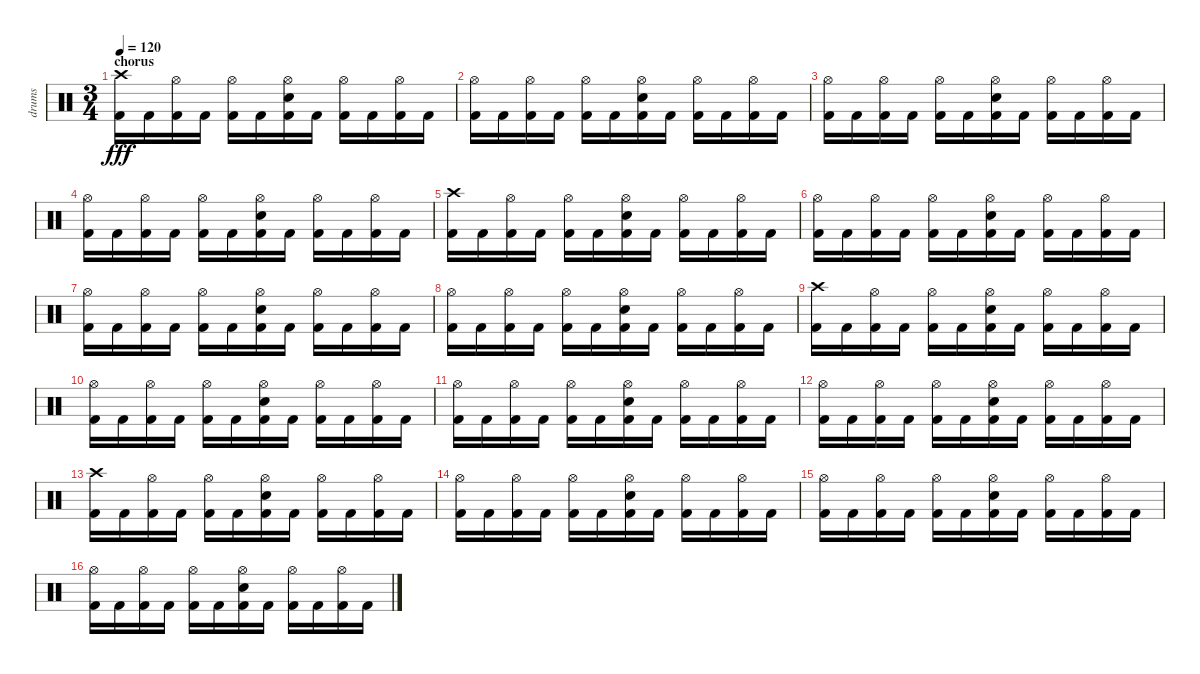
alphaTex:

\track ("drums" "drums") {instrument percussion}
\staff {score}
\articulation defaults
\ts (3 4)
\section ("" "chorus")
\tempo 120
\clef neutral
\ks c
("Crash high (hit)" "Kick (hit) 2").16{dy fff} "Kick (hit) 2".16 ("Hi-Hat (open)" "Kick (hit) 2").16 "Kick (hit) 2".16 ("Hi-Hat (open)" "Kick (hit) 2").16 "Kick (hit) 2".16 ("Hi-Hat (open)" "Snare (hit) 2" "Kick (hit) 2").16 "Kick (hit) 2".16 ("Hi-Hat (open)" "Kick (hit) 2").16 "Kick (hit) 2".16 ("Hi-Hat (open)" "Kick (hit) 2").16 "Kick (hit) 2".16 |
("Hi-Hat (open)" "Kick (hit) 2").16 "Kick (hit) 2".16 ("Hi-Hat (open)" "Kick (hit) 2").16 "Kick (hit) 2".16 ("Hi-Hat (open)" "Kick (hit) 2").16 "Kick (hit) 2".16 ("Hi-Hat (open)" "Snare (hit) 2" "Kick (hit) 2").16 "Kick (hit) 2".16 ("Hi-Hat (open)" "Kick (hit) 2").16 "Kick (hit) 2".16 ("Hi-Hat (open)" "Kick (hit) 2").16 "Kick (hit) 2".16 |
("Hi-Hat (open)" "Kick (hit) 2").16 "Kick (hit) 2".16 ("Hi-Hat (open)" "Kick (hit) 2").16 "Kick (hit) 2".16 ("Hi-Hat (open)" "Kick (hit) 2").16 "Kick (hit) 2".16 ("Hi-Hat (open)" "Snare (hit) 2" "Kick (hit) 2").16 "Kick (hit) 2".16 ("Hi-Hat (open)" "Kick (hit) 2").16 "Kick (hit) 2".16 ("Hi-Hat (open)" "Kick (hit) 2").16 "Kick (hit) 2".16 |
("Hi-Hat (open)" "Kick (hit) 2").16 "Kick (hit) 2".16 ("Hi-Hat (open)" "Kick (hit) 2").16 "Kick (hit) 2".16 ("Hi-Hat (open)" "Kick (hit) 2").16 "Kick (hit) 2".16 ("Hi-Hat (open)" "Snare (hit) 2" "Kick (hit) 2").16 "Kick (hit) 2".16 ("Hi-Hat (open)" "Kick (hit) 2").16 "Kick (hit) 2".16 ("Hi-Hat (open)" "Kick (hit) 2").16 "Kick (hit) 2".16 |
("Crash high (hit)" "Kick (hit) 2").16 "Kick (hit) 2".16 ("Hi-Hat (open)" "Kick (hit) 2").16 "Kick (hit) 2".16 ("Hi-Hat (open)" "Kick (hit) 2").16 "Kick (hit) 2".16 ("Hi-Hat (open)" "Snare (hit) 2" "Kick (hit) 2").16 "Kick (hit) 2".16 ("Hi-Hat (open)" "Kick (hit) 2").16 "Kick (hit) 2".16 ("Hi-Hat (open)" "Kick (hit) 2").16 "Kick (hit) 2".16 |
("Hi-Hat (open)" "Kick (hit) 2").16 "Kick (hit) 2".16 ("Hi-Hat (open)" "Kick (hit) 2").16 "Kick (hit) 2".16 ("Hi-Hat (open)" "Kick (hit) 2").16 "Kick (hit) 2".16 ("Hi-Hat (open)" "Snare (hit) 2" "Kick (hit) 2").16 "Kick (hit) 2".16 ("Hi-Hat (open)" "Kick (hit) 2").16 "Kick (hit) 2".16 ("Hi-Hat (open)" "Kick (hit) 2").16 "Kick (hit) 2".16 |
("Hi-Hat (open)" "Kick (hit) 2").16 "Kick (hit) 2".16 ("Hi-Hat (open)" "Kick (hit) 2").16 "Kick (hit) 2".16 ("Hi-Hat (open)" "Kick (hit) 2").16 "Kick (hit) 2".16 ("Hi-Hat (open)" "Snare (hit) 2" "Kick (hit) 2").16 "Kick (hit) 2".16 ("Hi-Hat (open)" "Kick (hit) 2").16 "Kick (hit) 2".16 ("Hi-Hat (open)" "Kick (hit) 2").16 "Kick (hit) 2".16 |
("Hi-Hat (open)" "Kick (hit) 2").16 "Kick (hit) 2".16 ("Hi-Hat (open)" "Kick (hit) 2").16 "Kick (hit) 2".16 ("Hi-Hat (open)" "Kick (hit) 2").16 "Kick (hit) 2".16 ("Hi-Hat (open)" "Snare (hit) 2" "Kick (hit) 2").16 "Kick (hit) 2".16 ("Hi-Hat (open)" "Kick (hit) 2").16 "Kick (hit) 2".16 ("Hi-Hat (open)" "Kick (hit) 2").16 "Kick (hit) 2".16 |
("Crash high (hit)" "Kick (hit) 2").16 "Kick (hit) 2".16 ("Hi-Hat (open)" "Kick (hit) 2").16 "Kick (hit) 2".16 ("Hi-Hat (open)" "Kick (hit) 2").16 "Kick (hit) 2".16 ("Hi-Hat (open)" "Snare (hit) 2" "Kick (hit) 2").16 "Kick (hit) 2".16 ("Hi-Hat (open)" "Kick (hit) 2").16 "Kick (hit) 2".16 ("Hi-Hat (open)" "Kick (hit) 2").16 "Kick (hit) 2".16 |
("Hi-Hat (open)" "Kick (hit) 2").16 "Kick (hit) 2".16 ("Hi-Hat (open)" "Kick (hit) 2").16 "Kick (hit) 2".16 ("Hi-Hat (open)" "Kick (hit) 2").16 "Kick (hit) 2".16 ("Hi-Hat (open)" "Snare (hit) 2" "Kick (hit) 2").16 "Kick (hit) 2".16 ("Hi-Hat (open)" "Kick (hit) 2").16 "Kick (hit) 2".16 ("Hi-Hat (open)" "Kick (hit) 2").16 "Kick (hit) 2".16 |
("Hi-Hat (open)" "Kick (hit) 2").16 "Kick (hit) 2".16 ("Hi-Hat (open)" "Kick (hit) 2").16 "Kick (hit) 2".16 ("Hi-Hat (open)" "Kick (hit) 2").16 "Kick (hit) 2".16 ("Hi-Hat (open)" "Snare (hit) 2" "Kick (hit) 2").16 "Kick (hit) 2".16 ("Hi-Hat (open)" "Kick (hit) 2").16 "Kick (hit) 2".16 ("Hi-Hat (open)" "Kick (hit) 2").16 "Kick (hit) 2".16 |
("Hi-Hat (open)" "Kick (hit) 2").16 "Kick (hit) 2".16 ("Hi-Hat (open)" "Kick (hit) 2").16 "Kick (hit) 2".16 ("Hi-Hat (open)" "Kick (hit) 2").16 "Kick (hit) 2".16 ("Hi-Hat (open)" "Snare (hit) 2" "Kick (hit) 2").16 "Kick (hit) 2".16 ("Hi-Hat (open)" "Kick (hit) 2").16 "Kick (hit) 2".16 ("Hi-Hat (open)" "Kick (hit) 2").16 "Kick (hit) 2".16 |
("Crash high (hit)" "Kick (hit) 2").16 "Kick (hit) 2".16 ("Hi-Hat (open)" "Kick (hit) 2").16 "Kick (hit) 2".16 ("Hi-Hat (open)" "Kick (hit) 2").16 "Kick (hit) 2".16 ("Hi-Hat (open)" "Snare (hit) 2" "Kick (hit) 2").16 "Kick (hit) 2".16 ("Hi-Hat (open)" "Kick (hit) 2").16 "Kick (hit) 2".16 ("Hi-Hat (open)" "Kick (hit) 2").16 "Kick (hit) 2".16 |
("Hi-Hat (open)" "Kick (hit) 2").16 "Kick (hit) 2".16 ("Hi-Hat (open)" "Kick (hit) 2").16 "Kick (hit) 2".16 ("Hi-Hat (open)" "Kick (hit) 2").16 "Kick (hit) 2".16 ("Hi-Hat (open)" "Snare (hit) 2" "Kick (hit) 2").16 "Kick (hit) 2".16 ("Hi-Hat (open)" "Kick (hit) 2").16 "Kick (hit) 2".16 ("Hi-Hat (open)" "Kick (hit) 2").16 "Kick (hit) 2".16 |
("Hi-Hat (open)" "Kick (hit) 2").16 "Kick (hit) 2".16 ("Hi-Hat (open)" "Kick (hit) 2").16 "Kick (hit) 2".16 ("Hi-Hat (open)" "Kick (hit) 2").16 "Kick (hit) 2".16 ("Hi-Hat (open)" "Snare (hit) 2" "Kick (hit) 2").16 "Kick (hit) 2".16 ("Hi-Hat (open)" "Kick (hit) 2").16 "Kick (hit) 2".16 ("Hi-Hat (open)" "Kick (hit) 2").16 "Kick (hit) 2".16 |
("Hi-Hat (open)" "Kick (hit) 2").16 "Kick (hit) 2".16 ("Hi-Hat (open)" "Kick (hit) 2").16 "Kick (hit) 2".16 ("Hi-Hat (open)" "Kick (hit) 2").16 "Kick (hit) 2".16 ("Hi-Hat (open)" "Snare (hit) 2" "Kick (hit) 2").16 "Kick (hit) 2".16 ("Hi-Hat (open)" "Kick (hit) 2").16 "Kick (hit) 2".16 ("Hi-Hat (open)" "Kick (hit) 2").16 "Kick (hit) 2".16
